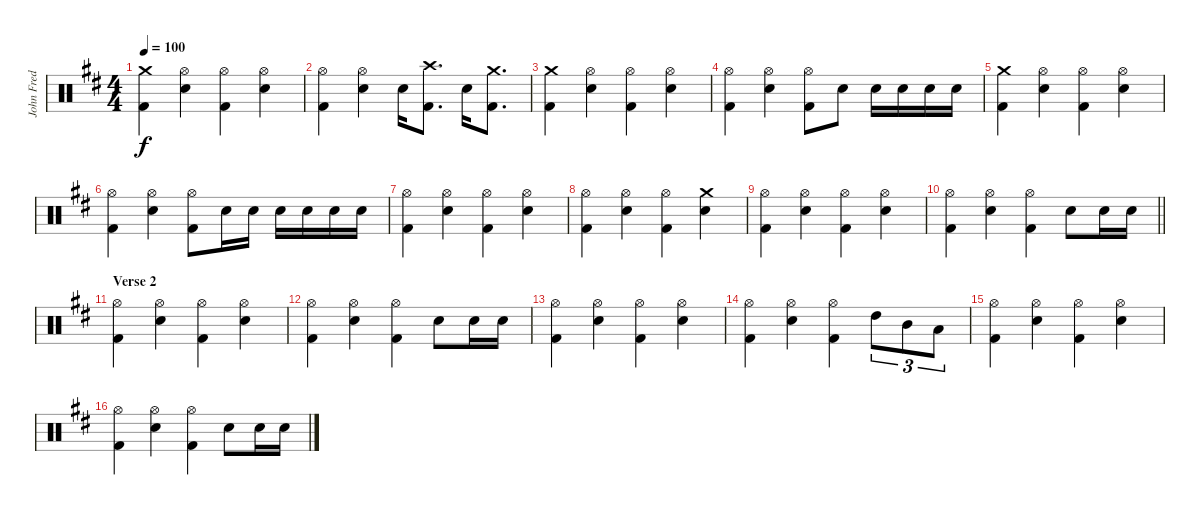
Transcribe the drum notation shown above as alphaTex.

\track ("John Fred Young" "John Fred ") {instrument percussion}
\staff {score}
\articulation defaults
\ts (4 4)
\tempo 100
\clef neutral
\ks bminor
("Crash medium (hit)" "Kick (hit) 2").4{dy f} ("Hi-Hat (open)" "Snare (hit) 2").4 ("Hi-Hat (open)" "Kick (hit) 2").4 ("Hi-Hat (open)" "Snare (hit) 2").4 |
("Hi-Hat (open)" "Kick (hit) 2").4 ("Hi-Hat (open)" "Snare (hit) 2").4 "Snare (hit) 2".16 ("Crash high (hit)" "Kick (hit) 2").8{d} "Snare (hit) 2".16 ("Crash medium (hit)" "Kick (hit) 2").8{d} |
("Crash medium (hit)" "Kick (hit) 2").4 ("Hi-Hat (open)" "Snare (hit) 2").4 ("Hi-Hat (open)" "Kick (hit) 2").4 ("Hi-Hat (open)" "Snare (hit) 2").4 |
("Hi-Hat (open)" "Kick (hit) 2").4 ("Hi-Hat (open)" "Snare (hit) 2").4 ("Hi-Hat (open)" "Kick (hit) 2").8 "Snare (hit) 2".8 "Snare (hit) 2".16 "Snare (hit) 2".16 "Snare (hit) 2".16 "Snare (hit) 2".16 |
("Crash medium (hit)" "Kick (hit) 2").4 ("Hi-Hat (open)" "Snare (hit) 2").4 ("Hi-Hat (open)" "Kick (hit) 2").4 ("Hi-Hat (open)" "Snare (hit) 2").4 |
("Hi-Hat (open)" "Kick (hit) 2").4 ("Hi-Hat (open)" "Snare (hit) 2").4 ("Hi-Hat (open)" "Kick (hit) 2").8 "Snare (hit) 2".16 "Snare (hit) 2".16 "Snare (hit) 2".16 "Snare (hit) 2".16 "Snare (hit) 2".16 "Snare (hit) 2".16 |
("Hi-Hat (open)" "Kick (hit) 2").4 ("Hi-Hat (open)" "Snare (hit) 2").4 ("Hi-Hat (open)" "Kick (hit) 2").4 ("Hi-Hat (open)" "Snare (hit) 2").4 |
("Hi-Hat (open)" "Kick (hit) 2").4 ("Hi-Hat (open)" "Snare (hit) 2").4 ("Hi-Hat (open)" "Kick (hit) 2").4 ("Crash medium (hit)" "Snare (hit) 2").4 |
("Hi-Hat (open)" "Kick (hit) 2").4 ("Hi-Hat (open)" "Snare (hit) 2").4 ("Hi-Hat (open)" "Kick (hit) 2").4 ("Hi-Hat (open)" "Snare (hit) 2").4 |
\barLineRight lightlight
("Hi-Hat (open)" "Kick (hit) 2").4 ("Hi-Hat (open)" "Snare (hit) 2").4 ("Hi-Hat (open)" "Kick (hit) 2").4 "Snare (hit) 2".8 "Snare (hit) 2".16 "Snare (hit) 2".16 |
\section ("" "Verse 2")
("Hi-Hat (open)" "Kick (hit) 2").4 ("Hi-Hat (open)" "Snare (hit) 2").4 ("Hi-Hat (open)" "Kick (hit) 2").4 ("Hi-Hat (open)" "Snare (hit) 2").4 |
("Hi-Hat (open)" "Kick (hit) 2").4 ("Hi-Hat (open)" "Snare (hit) 2").4 ("Hi-Hat (open)" "Kick (hit) 2").4 "Snare (hit) 2".8 "Snare (hit) 2".16 "Snare (hit) 2".16 |
("Hi-Hat (open)" "Kick (hit) 2").4 ("Hi-Hat (open)" "Snare (hit) 2").4 ("Hi-Hat (open)" "Kick (hit) 2").4 ("Hi-Hat (open)" "Snare (hit) 2").4 |
("Hi-Hat (open)" "Kick (hit) 2").4 ("Hi-Hat (open)" "Snare (hit) 2").4 ("Hi-Hat (open)" "Kick (hit) 2").4 "High Tom (hit)".8{tu (3 2)} "Mid Tom (hit)".8{tu (3 2)} "Low Tom (hit)".8{tu (3 2)} |
("Hi-Hat (open)" "Kick (hit) 2").4 ("Hi-Hat (open)" "Snare (hit) 2").4 ("Hi-Hat (open)" "Kick (hit) 2").4 ("Hi-Hat (open)" "Snare (hit) 2").4 |
("Hi-Hat (open)" "Kick (hit) 2").4 ("Hi-Hat (open)" "Snare (hit) 2").4 ("Hi-Hat (open)" "Kick (hit) 2").4 "Snare (hit) 2".8 "Snare (hit) 2".16 "Snare (hit) 2".16
